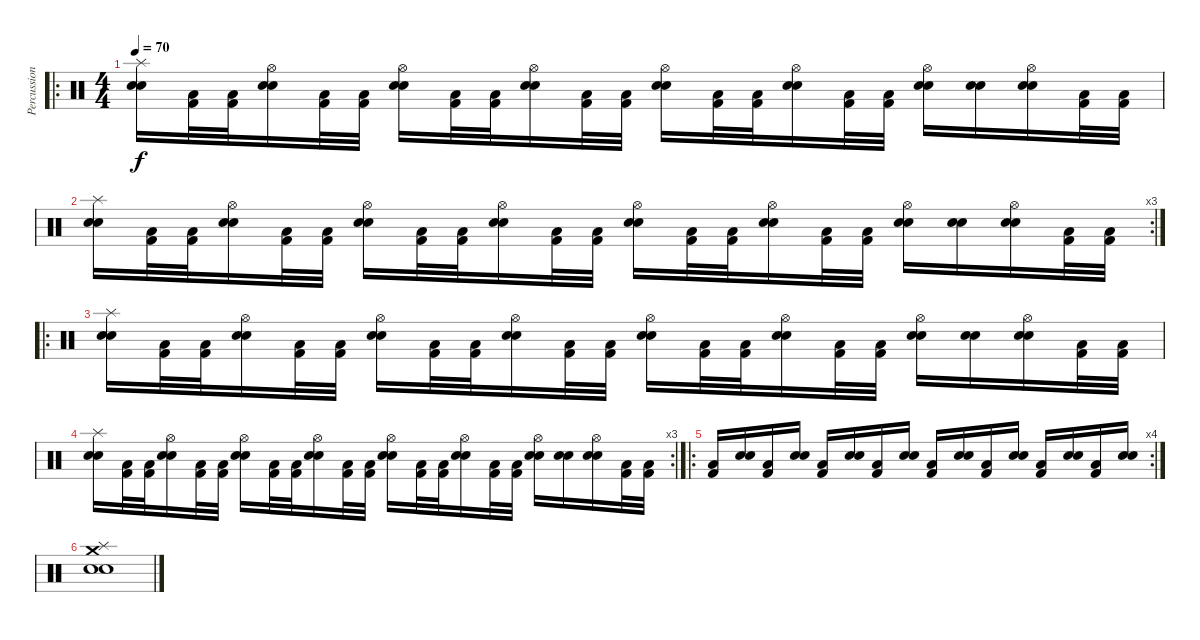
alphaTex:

\track ("Percussions" "Percussion") {instrument percussion}
\staff {score}
\articulation defaults
\ro
\ts (4 4)
\tempo 70
\clef neutral
\ks c
("Splash (hit)" "Electric Snare (hit)" "Snare (hit) 2").16{dy f} ("Kick (hit) 2" "Low Floor Tom (hit)").32 ("Low Floor Tom (hit)" "Kick (hit) 2").32 ("Electric Snare (hit)" "Snare (hit) 2" "Hi-Hat (open)").16 ("Kick (hit) 2" "Low Floor Tom (hit)").32 ("Kick (hit) 2" "Low Floor Tom (hit)").32 ("Electric Snare (hit)" "Snare (hit) 2" "Hi-Hat (open)").16 ("Kick (hit) 2" "Low Floor Tom (hit)").32 ("Kick (hit) 2" "Low Floor Tom (hit)").32 ("Electric Snare (hit)" "Snare (hit) 2" "Hi-Hat (open)").16 ("Kick (hit) 2" "Low Floor Tom (hit)").32 ("Kick (hit) 2" "Low Floor Tom (hit)").32 ("Electric Snare (hit)" "Snare (hit) 2" "Hi-Hat (open)").16 ("Kick (hit) 2" "Low Floor Tom (hit)").32 ("Kick (hit) 2" "Low Floor Tom (hit)").32 ("Electric Snare (hit)" "Snare (hit) 2" "Hi-Hat (open)").16 ("Kick (hit) 2" "Low Floor Tom (hit)").32 ("Kick (hit) 2" "Low Floor Tom (hit)").32 ("Electric Snare (hit)" "Snare (hit) 2" "Hi-Hat (open)").16 ("Electric Snare (hit)" "Snare (hit) 2").16 ("Electric Snare (hit)" "Snare (hit) 2" "Hi-Hat (open)").16 ("Kick (hit) 2" "Low Floor Tom (hit)").32 ("Kick (hit) 2" "Low Floor Tom (hit)").32 |
\rc 3
("Splash (hit)" "Electric Snare (hit)" "Snare (hit) 2").16 ("Kick (hit) 2" "Low Floor Tom (hit)").32 ("Low Floor Tom (hit)" "Kick (hit) 2").32 ("Electric Snare (hit)" "Snare (hit) 2" "Hi-Hat (open)").16 ("Kick (hit) 2" "Low Floor Tom (hit)").32 ("Kick (hit) 2" "Low Floor Tom (hit)").32 ("Electric Snare (hit)" "Snare (hit) 2" "Hi-Hat (open)").16 ("Kick (hit) 2" "Low Floor Tom (hit)").32 ("Kick (hit) 2" "Low Floor Tom (hit)").32 ("Electric Snare (hit)" "Snare (hit) 2" "Hi-Hat (open)").16 ("Kick (hit) 2" "Low Floor Tom (hit)").32 ("Kick (hit) 2" "Low Floor Tom (hit)").32 ("Electric Snare (hit)" "Snare (hit) 2" "Hi-Hat (open)").16 ("Kick (hit) 2" "Low Floor Tom (hit)").32 ("Kick (hit) 2" "Low Floor Tom (hit)").32 ("Electric Snare (hit)" "Snare (hit) 2" "Hi-Hat (open)").16 ("Kick (hit) 2" "Low Floor Tom (hit)").32 ("Kick (hit) 2" "Low Floor Tom (hit)").32 ("Electric Snare (hit)" "Snare (hit) 2" "Hi-Hat (open)").16 ("Electric Snare (hit)" "Snare (hit) 2").16 ("Electric Snare (hit)" "Snare (hit) 2" "Hi-Hat (open)").16 ("Kick (hit) 2" "Low Floor Tom (hit)").32 ("Kick (hit) 2" "Low Floor Tom (hit)").32 |
\ro
("Splash (hit)" "Electric Snare (hit)" "Snare (hit) 2").16 ("Kick (hit) 2" "Low Floor Tom (hit)").32 ("Low Floor Tom (hit)" "Kick (hit) 2").32 ("Electric Snare (hit)" "Snare (hit) 2" "Hi-Hat (open)").16 ("Kick (hit) 2" "Low Floor Tom (hit)").32 ("Kick (hit) 2" "Low Floor Tom (hit)").32 ("Electric Snare (hit)" "Snare (hit) 2" "Hi-Hat (open)").16 ("Kick (hit) 2" "Low Floor Tom (hit)").32 ("Kick (hit) 2" "Low Floor Tom (hit)").32 ("Electric Snare (hit)" "Snare (hit) 2" "Hi-Hat (open)").16 ("Kick (hit) 2" "Low Floor Tom (hit)").32 ("Kick (hit) 2" "Low Floor Tom (hit)").32 ("Electric Snare (hit)" "Snare (hit) 2" "Hi-Hat (open)").16 ("Kick (hit) 2" "Low Floor Tom (hit)").32 ("Kick (hit) 2" "Low Floor Tom (hit)").32 ("Electric Snare (hit)" "Snare (hit) 2" "Hi-Hat (open)").16 ("Kick (hit) 2" "Low Floor Tom (hit)").32 ("Kick (hit) 2" "Low Floor Tom (hit)").32 ("Electric Snare (hit)" "Snare (hit) 2" "Hi-Hat (open)").16 ("Electric Snare (hit)" "Snare (hit) 2").16 ("Electric Snare (hit)" "Snare (hit) 2" "Hi-Hat (open)").16 ("Kick (hit) 2" "Low Floor Tom (hit)").32 ("Kick (hit) 2" "Low Floor Tom (hit)").32 |
\rc 3
("Splash (hit)" "Electric Snare (hit)" "Snare (hit) 2").16 ("Kick (hit) 2" "Low Floor Tom (hit)").32 ("Low Floor Tom (hit)" "Kick (hit) 2").32 ("Electric Snare (hit)" "Snare (hit) 2" "Hi-Hat (open)").16 ("Kick (hit) 2" "Low Floor Tom (hit)").32 ("Kick (hit) 2" "Low Floor Tom (hit)").32 ("Electric Snare (hit)" "Snare (hit) 2" "Hi-Hat (open)").16 ("Kick (hit) 2" "Low Floor Tom (hit)").32 ("Kick (hit) 2" "Low Floor Tom (hit)").32 ("Electric Snare (hit)" "Snare (hit) 2" "Hi-Hat (open)").16 ("Kick (hit) 2" "Low Floor Tom (hit)").32 ("Kick (hit) 2" "Low Floor Tom (hit)").32 ("Electric Snare (hit)" "Snare (hit) 2" "Hi-Hat (open)").16 ("Kick (hit) 2" "Low Floor Tom (hit)").32 ("Kick (hit) 2" "Low Floor Tom (hit)").32 ("Electric Snare (hit)" "Snare (hit) 2" "Hi-Hat (open)").16 ("Kick (hit) 2" "Low Floor Tom (hit)").32 ("Kick (hit) 2" "Low Floor Tom (hit)").32 ("Electric Snare (hit)" "Snare (hit) 2" "Hi-Hat (open)").16 ("Electric Snare (hit)" "Snare (hit) 2").16 ("Electric Snare (hit)" "Snare (hit) 2" "Hi-Hat (open)").16 ("Kick (hit) 2" "Low Floor Tom (hit)").32 ("Kick (hit) 2" "Low Floor Tom (hit)").32 |
\ro
\rc 4
("Kick (hit) 2" "Low Floor Tom (hit)").16 ("Snare (hit) 2" "Electric Snare (hit)").16 ("Kick (hit) 2" "Low Floor Tom (hit)").16 ("Snare (hit) 2" "Electric Snare (hit)").16 ("Kick (hit) 2" "Low Floor Tom (hit)").16 ("Snare (hit) 2" "Electric Snare (hit)").16 ("Kick (hit) 2" "Low Floor Tom (hit)").16 ("Snare (hit) 2" "Electric Snare (hit)").16 ("Kick (hit) 2" "Low Floor Tom (hit)").16 ("Snare (hit) 2" "Electric Snare (hit)").16 ("Kick (hit) 2" "Low Floor Tom (hit)").16 ("Snare (hit) 2" "Electric Snare (hit)").16 ("Kick (hit) 2" "Low Floor Tom (hit)").16 ("Snare (hit) 2" "Electric Snare (hit)").16 ("Kick (hit) 2" "Low Floor Tom (hit)").16 ("Snare (hit) 2" "Electric Snare (hit)").16 |
("Crash medium (hit)" "Snare (hit) 2" "Electric Snare (hit)" "Splash (hit)").1
